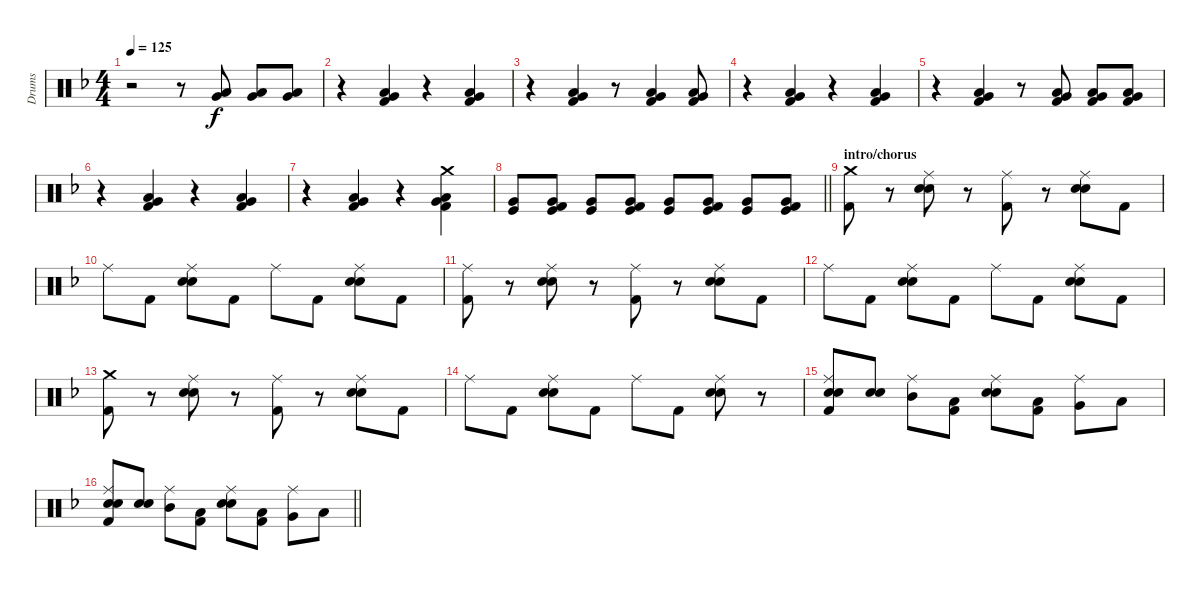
\track ("Drums" "Drums") {instrument percussion}
\staff {score}
\articulation defaults
\ts (4 4)
\tempo 125
\clef neutral
\ks f
r.2{dy f} r.8 ("Very Low Tom (hit)" "Low Tom (hit)").8 ("Very Low Tom (hit)" "Low Tom (hit)").8 ("Very Low Tom (hit)" "Low Tom (hit)").8 |
r.4 ("Very Low Tom (hit)" "Low Floor Tom (hit)" "Kick (hit) 2").4 r.4 ("Very Low Tom (hit)" "Low Floor Tom (hit)" "Kick (hit) 2").4 |
r.4 ("Very Low Tom (hit)" "Low Floor Tom (hit)" "Kick (hit) 2").4 r.8 ("Very Low Tom (hit)" "Low Floor Tom (hit)" "Kick (hit) 2").4 ("Very Low Tom (hit)" "Low Floor Tom (hit)" "Kick (hit) 2").8 |
r.4 ("Very Low Tom (hit)" "Low Floor Tom (hit)" "Kick (hit) 2").4 r.4 ("Very Low Tom (hit)" "Low Floor Tom (hit)" "Kick (hit) 2").4 |
r.4 ("Very Low Tom (hit)" "Low Floor Tom (hit)" "Kick (hit) 2").4 r.8 ("Very Low Tom (hit)" "Low Floor Tom (hit)" "Kick (hit) 2").8 ("Very Low Tom (hit)" "Low Floor Tom (hit)" "Kick (hit) 2").8 ("Very Low Tom (hit)" "Low Floor Tom (hit)" "Kick (hit) 2").8 |
r.4 ("Very Low Tom (hit)" "Low Floor Tom (hit)" "Kick (hit) 2").4 r.4 ("Very Low Tom (hit)" "Low Floor Tom (hit)" "Kick (hit) 2").4 |
r.4 ("Very Low Tom (hit)" "Low Floor Tom (hit)" "Kick (hit) 2").4 r.4 ("Crash medium (hit)" "Very Low Tom (hit)" "Low Floor Tom (hit)" "Kick (hit) 2").4 |
\barLineRight lightlight
("Very Low Tom (hit)" "Kick (hit)").8 ("Very Low Tom (hit)" "Kick (hit)" "Kick (hit) 2").8 ("Very Low Tom (hit)" "Kick (hit)").8 ("Very Low Tom (hit)" "Kick (hit)" "Kick (hit) 2").8 ("Very Low Tom (hit)" "Kick (hit)").8 ("Very Low Tom (hit)" "Kick (hit)" "Kick (hit) 2").8 ("Very Low Tom (hit)" "Kick (hit)").8 ("Very Low Tom (hit)" "Kick (hit)" "Kick (hit) 2").8 |
\section ("" "intro/chorus")
("Crash medium (hit)" "Kick (hit) 2").8 r.8 ("Ride (middle)" "Electric Snare (hit)" "Snare (hit) 2").8 r.8 ("Ride (middle)" "Kick (hit) 2").8 r.8 ("Ride (middle)" "Electric Snare (hit)" "Snare (hit) 2").8 "Kick (hit) 2".8 |
"Ride (middle)".8 "Kick (hit) 2".8 ("Ride (middle)" "Electric Snare (hit)" "Snare (hit) 2").8 "Kick (hit) 2".8 "Ride (middle)".8 "Kick (hit) 2".8 ("Ride (middle)" "Electric Snare (hit)" "Snare (hit) 2").8 "Kick (hit) 2".8 |
("Ride (middle)" "Kick (hit) 2").8 r.8 ("Ride (middle)" "Electric Snare (hit)" "Snare (hit) 2").8 r.8 ("Ride (middle)" "Kick (hit) 2").8 r.8 ("Ride (middle)" "Electric Snare (hit)" "Snare (hit) 2").8 "Kick (hit) 2".8 |
"Ride (middle)".8 "Kick (hit) 2".8 ("Ride (middle)" "Electric Snare (hit)" "Snare (hit) 2").8 "Kick (hit) 2".8 "Ride (middle)".8 "Kick (hit) 2".8 ("Ride (middle)" "Electric Snare (hit)" "Snare (hit) 2").8 "Kick (hit) 2".8 |
("Crash medium (hit)" "Kick (hit) 2").8 r.8 ("Ride (middle)" "Electric Snare (hit)" "Snare (hit) 2").8 r.8 ("Ride (middle)" "Kick (hit) 2").8 r.8 ("Ride (middle)" "Electric Snare (hit)" "Snare (hit) 2").8 "Kick (hit) 2".8 |
"Ride (middle)".8 "Kick (hit) 2".8 ("Ride (middle)" "Electric Snare (hit)" "Snare (hit) 2").8 "Kick (hit) 2".8 "Ride (middle)".8 "Kick (hit) 2".8 ("Ride (middle)" "Electric Snare (hit)" "Snare (hit) 2").8 r.8 |
("Ride (middle)" "Electric Snare (hit)" "Snare (hit) 2" "Kick (hit) 2").8 ("Electric Snare (hit)" "Snare (hit) 2").8 ("Ride (middle)" "Mid Tom (hit)").8 ("Low Tom (hit)" "Kick (hit) 2").8 ("Ride (middle)" "Electric Snare (hit)" "Snare (hit) 2").8 ("Low Tom (hit)" "Kick (hit) 2").8 ("Ride (middle)" "Very Low Tom (hit)").8 "Low Floor Tom (hit)".8 |
\barLineRight lightlight
("Ride (middle)" "Electric Snare (hit)" "Snare (hit) 2" "Kick (hit) 2").8 ("Electric Snare (hit)" "Snare (hit) 2").8 ("Ride (middle)" "Mid Tom (hit)").8 ("Low Tom (hit)" "Kick (hit) 2").8 ("Ride (middle)" "Electric Snare (hit)" "Snare (hit) 2").8 ("Low Tom (hit)" "Kick (hit) 2").8 ("Ride (middle)" "Very Low Tom (hit)").8 "Low Floor Tom (hit)".8
